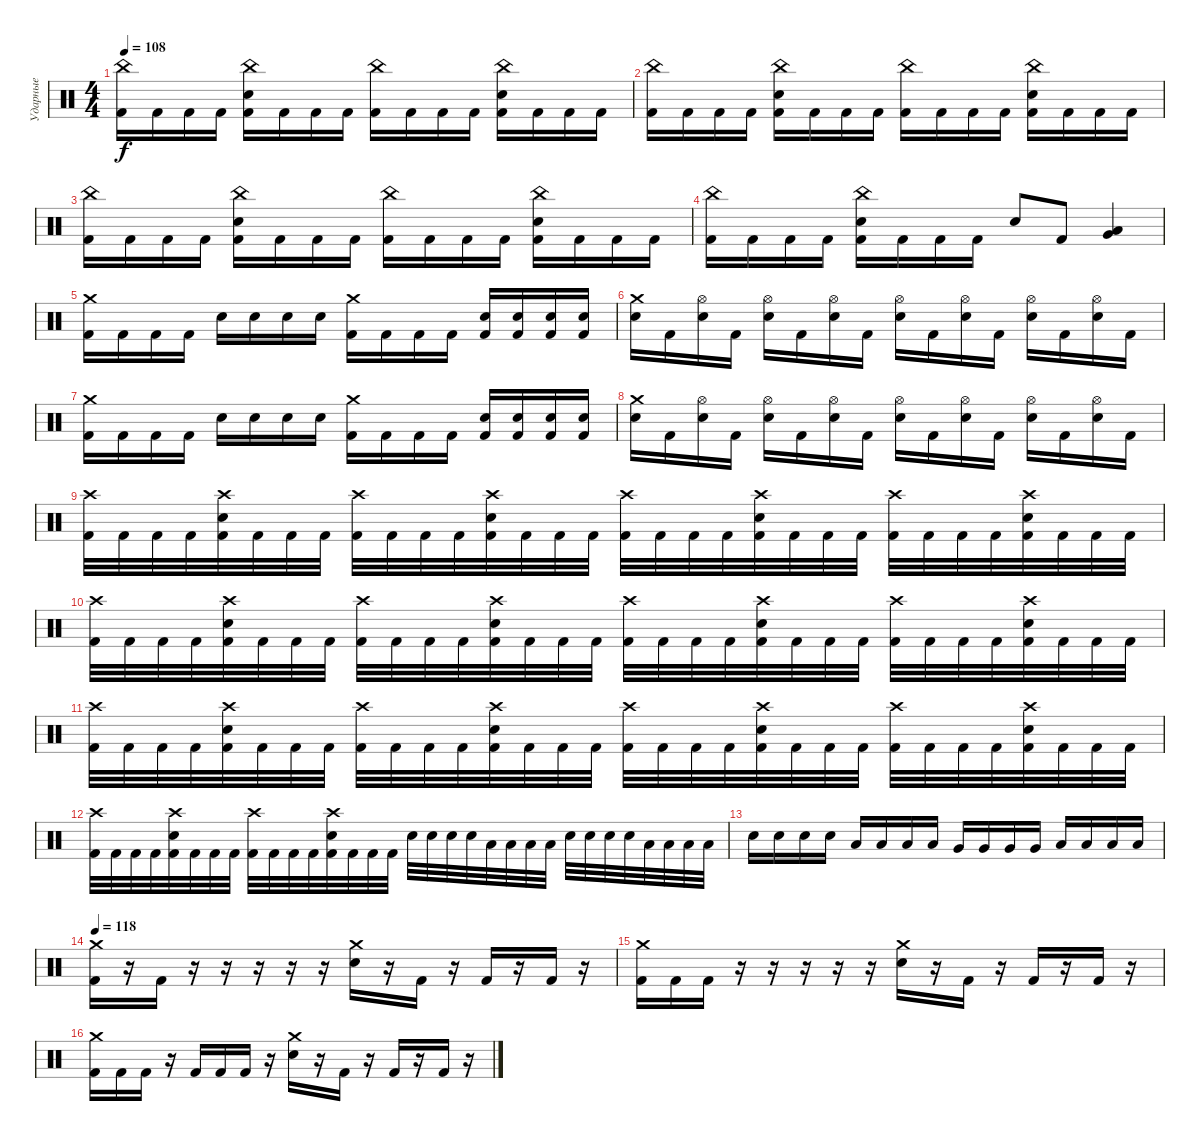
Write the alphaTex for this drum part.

\track ("Ударные" "Ударные") {instrument percussion}
\staff {score}
\articulation defaults
\ts (4 4)
\tempo 108
\clef neutral
\ks c
("China (hit)" "Kick (hit) 2").16{dy f} "Kick (hit) 2".16 "Kick (hit) 2".16 "Kick (hit) 2".16 ("China (hit)" "Electric Snare (hit)" "Kick (hit) 2").16 "Kick (hit) 2".16 "Kick (hit) 2".16 "Kick (hit) 2".16 ("China (hit)" "Kick (hit) 2").16 "Kick (hit) 2".16 "Kick (hit) 2".16 "Kick (hit) 2".16 ("China (hit)" "Electric Snare (hit)" "Kick (hit) 2").16 "Kick (hit) 2".16 "Kick (hit) 2".16 "Kick (hit) 2".16 |
("China (hit)" "Kick (hit) 2").16 "Kick (hit) 2".16 "Kick (hit) 2".16 "Kick (hit) 2".16 ("China (hit)" "Electric Snare (hit)" "Kick (hit) 2").16 "Kick (hit) 2".16 "Kick (hit) 2".16 "Kick (hit) 2".16 ("China (hit)" "Kick (hit) 2").16 "Kick (hit) 2".16 "Kick (hit) 2".16 "Kick (hit) 2".16 ("China (hit)" "Electric Snare (hit)" "Kick (hit) 2").16 "Kick (hit) 2".16 "Kick (hit) 2".16 "Kick (hit) 2".16 |
("China (hit)" "Kick (hit) 2").16 "Kick (hit) 2".16 "Kick (hit) 2".16 "Kick (hit) 2".16 ("China (hit)" "Electric Snare (hit)" "Kick (hit) 2").16 "Kick (hit) 2".16 "Kick (hit) 2".16 "Kick (hit) 2".16 ("China (hit)" "Kick (hit) 2").16 "Kick (hit) 2".16 "Kick (hit) 2".16 "Kick (hit) 2".16 ("China (hit)" "Electric Snare (hit)" "Kick (hit) 2").16 "Kick (hit) 2".16 "Kick (hit) 2".16 "Kick (hit) 2".16 |
("China (hit)" "Kick (hit) 2").16 "Kick (hit) 2".16 "Kick (hit) 2".16 "Kick (hit) 2".16 ("China (hit)" "Electric Snare (hit)" "Kick (hit) 2").16 "Kick (hit) 2".16 "Kick (hit) 2".16 "Kick (hit) 2".16 "Electric Snare (hit)".8 "Kick (hit) 2".8 ("Low Floor Tom (hit)" "Very Low Tom (hit)").4 |
("Crash medium (hit)" "Kick (hit) 2").16 "Kick (hit) 2".16 "Kick (hit) 2".16 "Kick (hit) 2".16 "Electric Snare (hit)".16 "Electric Snare (hit)".16 "Electric Snare (hit)".16 "Electric Snare (hit)".16 ("Kick (hit) 2" "Crash medium (hit)").16 "Kick (hit) 2".16 "Kick (hit) 2".16 "Kick (hit) 2".16 ("Electric Snare (hit)" "Kick (hit) 2").16 ("Electric Snare (hit)" "Kick (hit) 2").16 ("Electric Snare (hit)" "Kick (hit) 2").16 ("Electric Snare (hit)" "Kick (hit) 2").16 |
("Electric Snare (hit)" "Crash medium (hit)").16 "Kick (hit) 2".16 ("Electric Snare (hit)" "Hi-Hat (open)").16 "Kick (hit) 2".16 ("Electric Snare (hit)" "Hi-Hat (open)").16 "Kick (hit) 2".16 ("Electric Snare (hit)" "Hi-Hat (open)").16 "Kick (hit) 2".16 ("Electric Snare (hit)" "Hi-Hat (open)").16 "Kick (hit) 2".16 ("Electric Snare (hit)" "Hi-Hat (open)").16 "Kick (hit) 2".16 ("Electric Snare (hit)" "Hi-Hat (open)").16 "Kick (hit) 2".16 ("Electric Snare (hit)" "Hi-Hat (open)").16 "Kick (hit) 2".16 |
("Crash medium (hit)" "Kick (hit) 2").16 "Kick (hit) 2".16 "Kick (hit) 2".16 "Kick (hit) 2".16 "Electric Snare (hit)".16 "Electric Snare (hit)".16 "Electric Snare (hit)".16 "Electric Snare (hit)".16 ("Kick (hit) 2" "Crash medium (hit)").16 "Kick (hit) 2".16 "Kick (hit) 2".16 "Kick (hit) 2".16 ("Electric Snare (hit)" "Kick (hit) 2").16 ("Electric Snare (hit)" "Kick (hit) 2").16 ("Electric Snare (hit)" "Kick (hit) 2").16 ("Electric Snare (hit)" "Kick (hit) 2").16 |
("Electric Snare (hit)" "Crash medium (hit)").16 "Kick (hit) 2".16 ("Electric Snare (hit)" "Hi-Hat (open)").16 "Kick (hit) 2".16 ("Electric Snare (hit)" "Hi-Hat (open)").16 "Kick (hit) 2".16 ("Electric Snare (hit)" "Hi-Hat (open)").16 "Kick (hit) 2".16 ("Electric Snare (hit)" "Hi-Hat (open)").16 "Kick (hit) 2".16 ("Electric Snare (hit)" "Hi-Hat (open)").16 "Kick (hit) 2".16 ("Electric Snare (hit)" "Hi-Hat (open)").16 "Kick (hit) 2".16 ("Electric Snare (hit)" "Hi-Hat (open)").16 "Kick (hit) 2".16 |
("Kick (hit) 2" "Crash high (hit)").32 "Kick (hit) 2".32 "Kick (hit) 2".32 "Kick (hit) 2".32 ("Kick (hit) 2" "Electric Snare (hit)" "Crash high (hit)").32 "Kick (hit) 2".32 "Kick (hit) 2".32 "Kick (hit) 2".32 ("Kick (hit) 2" "Crash high (hit)").32 "Kick (hit) 2".32 "Kick (hit) 2".32 "Kick (hit) 2".32 ("Kick (hit) 2" "Electric Snare (hit)" "Crash high (hit)").32 "Kick (hit) 2".32 "Kick (hit) 2".32 "Kick (hit) 2".32 ("Kick (hit) 2" "Crash high (hit)").32 "Kick (hit) 2".32 "Kick (hit) 2".32 "Kick (hit) 2".32 ("Kick (hit) 2" "Electric Snare (hit)" "Crash high (hit)").32 "Kick (hit) 2".32 "Kick (hit) 2".32 "Kick (hit) 2".32 ("Kick (hit) 2" "Crash high (hit)").32 "Kick (hit) 2".32 "Kick (hit) 2".32 "Kick (hit) 2".32 ("Kick (hit) 2" "Electric Snare (hit)" "Crash high (hit)").32 "Kick (hit) 2".32 "Kick (hit) 2".32 "Kick (hit) 2".32 |
("Kick (hit) 2" "Crash high (hit)").32 "Kick (hit) 2".32 "Kick (hit) 2".32 "Kick (hit) 2".32 ("Kick (hit) 2" "Electric Snare (hit)" "Crash high (hit)").32 "Kick (hit) 2".32 "Kick (hit) 2".32 "Kick (hit) 2".32 ("Kick (hit) 2" "Crash high (hit)").32 "Kick (hit) 2".32 "Kick (hit) 2".32 "Kick (hit) 2".32 ("Kick (hit) 2" "Electric Snare (hit)" "Crash high (hit)").32 "Kick (hit) 2".32 "Kick (hit) 2".32 "Kick (hit) 2".32 ("Kick (hit) 2" "Crash high (hit)").32 "Kick (hit) 2".32 "Kick (hit) 2".32 "Kick (hit) 2".32 ("Kick (hit) 2" "Electric Snare (hit)" "Crash high (hit)").32 "Kick (hit) 2".32 "Kick (hit) 2".32 "Kick (hit) 2".32 ("Kick (hit) 2" "Crash high (hit)").32 "Kick (hit) 2".32 "Kick (hit) 2".32 "Kick (hit) 2".32 ("Kick (hit) 2" "Electric Snare (hit)" "Crash high (hit)").32 "Kick (hit) 2".32 "Kick (hit) 2".32 "Kick (hit) 2".32 |
("Kick (hit) 2" "Crash high (hit)").32 "Kick (hit) 2".32 "Kick (hit) 2".32 "Kick (hit) 2".32 ("Kick (hit) 2" "Electric Snare (hit)" "Crash high (hit)").32 "Kick (hit) 2".32 "Kick (hit) 2".32 "Kick (hit) 2".32 ("Kick (hit) 2" "Crash high (hit)").32 "Kick (hit) 2".32 "Kick (hit) 2".32 "Kick (hit) 2".32 ("Kick (hit) 2" "Electric Snare (hit)" "Crash high (hit)").32 "Kick (hit) 2".32 "Kick (hit) 2".32 "Kick (hit) 2".32 ("Kick (hit) 2" "Crash high (hit)").32 "Kick (hit) 2".32 "Kick (hit) 2".32 "Kick (hit) 2".32 ("Kick (hit) 2" "Electric Snare (hit)" "Crash high (hit)").32 "Kick (hit) 2".32 "Kick (hit) 2".32 "Kick (hit) 2".32 ("Kick (hit) 2" "Crash high (hit)").32 "Kick (hit) 2".32 "Kick (hit) 2".32 "Kick (hit) 2".32 ("Kick (hit) 2" "Electric Snare (hit)" "Crash high (hit)").32 "Kick (hit) 2".32 "Kick (hit) 2".32 "Kick (hit) 2".32 |
("Kick (hit) 2" "Crash high (hit)").32 "Kick (hit) 2".32 "Kick (hit) 2".32 "Kick (hit) 2".32 ("Kick (hit) 2" "Electric Snare (hit)" "Crash high (hit)").32 "Kick (hit) 2".32 "Kick (hit) 2".32 "Kick (hit) 2".32 ("Kick (hit) 2" "Crash high (hit)").32 "Kick (hit) 2".32 "Kick (hit) 2".32 "Kick (hit) 2".32 ("Kick (hit) 2" "Electric Snare (hit)" "Crash high (hit)").32 "Kick (hit) 2".32 "Kick (hit) 2".32 "Kick (hit) 2".32 "Electric Snare (hit)".32 "Electric Snare (hit)".32 "Electric Snare (hit)".32 "Electric Snare (hit)".32 "Low Tom (hit)".32 "Low Tom (hit)".32 "Low Tom (hit)".32 "Low Tom (hit)".32 "Electric Snare (hit)".32 "Electric Snare (hit)".32 "Electric Snare (hit)".32 "Electric Snare (hit)".32 "Low Tom (hit)".32 "Low Tom (hit)".32 "Low Tom (hit)".32 "Low Tom (hit)".32 |
"Electric Snare (hit)".16 "Electric Snare (hit)".16 "Electric Snare (hit)".16 "Electric Snare (hit)".16 "Low Tom (hit)".16 "Low Tom (hit)".16 "Low Tom (hit)".16 "Low Tom (hit)".16 "Very Low Tom (hit)".16 "Very Low Tom (hit)".16 "Very Low Tom (hit)".16 "Very Low Tom (hit)".16 "Low Floor Tom (hit)".16 "Low Floor Tom (hit)".16 "Low Floor Tom (hit)".16 "Low Floor Tom (hit)".16 |
\tempo 118
("Kick (hit) 2" "Crash medium (hit)").16 r.16 "Kick (hit) 2".16 r.16 r.16 r.16 r.16 r.16 ("Electric Snare (hit)" "Crash medium (hit)").16 r.16 "Kick (hit) 2".16 r.16 "Kick (hit) 2".16 r.16 "Kick (hit) 2".16 r.16 |
("Kick (hit) 2" "Crash medium (hit)").16 "Kick (hit) 2".16 "Kick (hit) 2".16 r.16 r.16 r.16 r.16 r.16 ("Electric Snare (hit)" "Crash medium (hit)").16 r.16 "Kick (hit) 2".16 r.16 "Kick (hit) 2".16 r.16 "Kick (hit) 2".16 r.16 |
("Kick (hit) 2" "Crash medium (hit)").16 "Kick (hit) 2".16 "Kick (hit) 2".16 r.16 "Kick (hit) 2".16 "Kick (hit) 2".16 "Kick (hit) 2".16 r.16 ("Electric Snare (hit)" "Crash medium (hit)").16 r.16 "Kick (hit) 2".16 r.16 "Kick (hit) 2".16 r.16 "Kick (hit) 2".16 r.16
